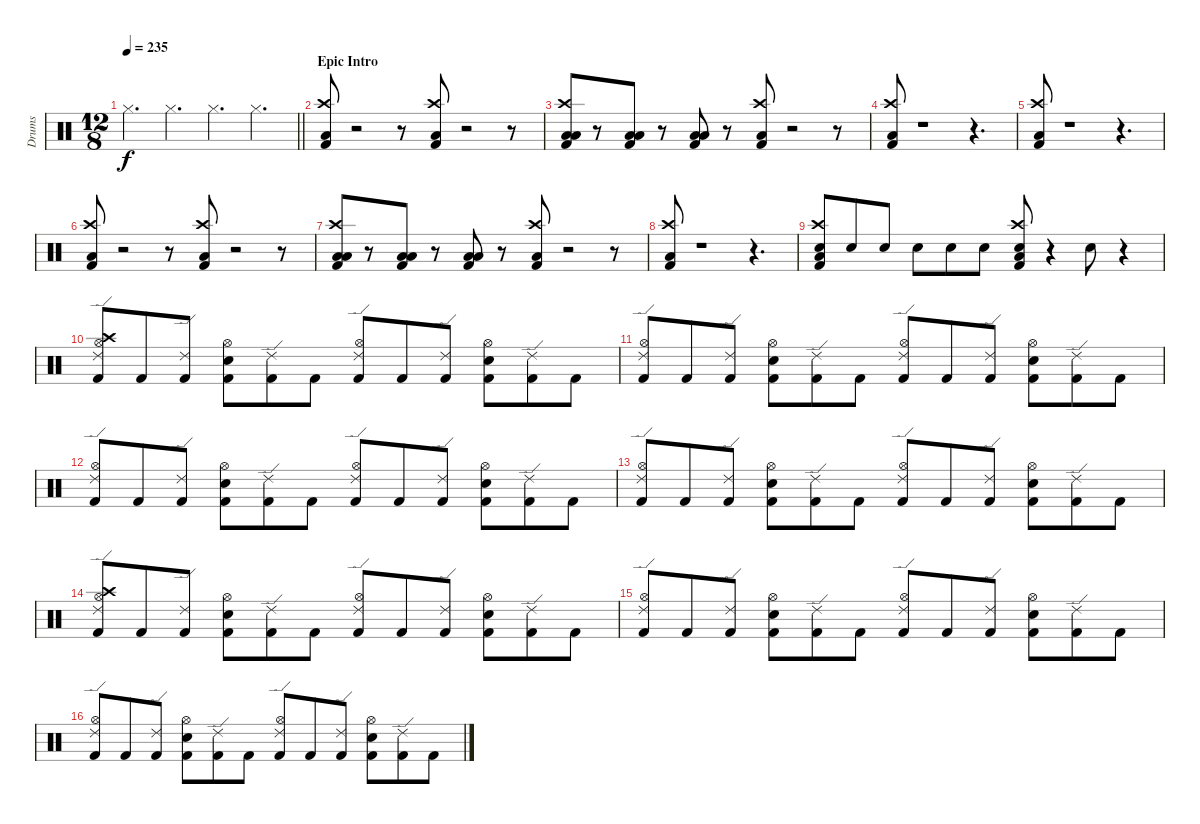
\track ("Drums" "Drums") {instrument percussion}
\staff {score}
\articulation defaults
\ts (12 8)
\tempo 235
\clef neutral
\barLineRight lightlight
\ks c "Hi-Hat (closed)".4{d dy f} "Hi-Hat (closed)".4{d} "Hi-Hat (closed)".4{d} "Hi-Hat (closed)".4{d}
|
\section ("" "Epic Intro")
("Kick (hit) 2" "Crash high (hit)" "Low Floor Tom (hit)").8 r.2 r.8 ("Crash high (hit)" "Kick (hit) 2" "Low Floor Tom (hit)").8 r.2 r.8 |
("Low Tom (hit)" "Low Floor Tom (hit)" "Kick (hit) 2" "Crash high (hit)").8 r.8 ("Kick (hit) 2" "Low Floor Tom (hit)" "Low Tom (hit)").8 r.8 ("Kick (hit) 2" "Low Tom (hit)" "Low Floor Tom (hit)").8 r.8 ("Crash high (hit)" "Kick (hit) 2" "Low Floor Tom (hit)").8 r.2 r.8 |
("Kick (hit) 2" "Crash high (hit)" "Low Floor Tom (hit)").8 r.1 r.4{d} |
("Crash high (hit)" "Kick (hit) 2" "Low Floor Tom (hit)").8 r.1 r.4{d} |
("Kick (hit) 2" "Crash high (hit)" "Low Floor Tom (hit)").8 r.2 r.8 ("Crash high (hit)" "Kick (hit) 2" "Low Floor Tom (hit)").8 r.2 r.8 |
("Low Tom (hit)" "Low Floor Tom (hit)" "Kick (hit) 2" "Crash high (hit)").8 r.8 ("Kick (hit) 2" "Low Floor Tom (hit)" "Low Tom (hit)").8 r.8 ("Kick (hit) 2" "Low Tom (hit)" "Low Floor Tom (hit)").8 r.8 ("Crash high (hit)" "Kick (hit) 2" "Low Floor Tom (hit)").8 r.2 r.8 |
("Kick (hit) 2" "Crash high (hit)" "Low Floor Tom (hit)").8 r.1 r.4{d} |
("Crash high (hit)" "Kick (hit) 2" "Low Floor Tom (hit)" "Snare (hit) 2").8 "Snare (hit) 2".8 "Snare (hit) 2".8 "Snare (hit) 2".8 "Snare (hit) 2".8 "Snare (hit) 2".8 ("Snare (hit) 2" "Crash high (hit)" "Kick (hit) 2" "Low Floor Tom (hit)").8 r.4 "Snare (hit) 2".8 r.4 |
("Hi-Hat (open)" "Kick (hit) 2" "Crash high (hit)" "Ride (edge) 2").8 "Kick (hit) 2".8 ("Kick (hit) 2" "Ride (edge) 2").8 ("Kick (hit) 2" "Hi-Hat (open)" "Snare (hit) 2").8 ("Ride (edge) 2" "Kick (hit) 2").8 "Kick (hit) 2".8 ("Kick (hit) 2" "Ride (edge) 2" "Hi-Hat (open)").8 "Kick (hit) 2".8 ("Kick (hit) 2" "Ride (edge) 2").8 ("Kick (hit) 2" "Hi-Hat (open)" "Snare (hit) 2").8 ("Ride (edge) 2" "Kick (hit) 2").8 "Kick (hit) 2".8 |
("Kick (hit) 2" "Ride (edge) 2" "Hi-Hat (open)").8 "Kick (hit) 2".8 ("Kick (hit) 2" "Ride (edge) 2").8 ("Kick (hit) 2" "Hi-Hat (open)" "Snare (hit) 2").8 ("Ride (edge) 2" "Kick (hit) 2").8 "Kick (hit) 2".8 ("Kick (hit) 2" "Ride (edge) 2" "Hi-Hat (open)").8 "Kick (hit) 2".8 ("Kick (hit) 2" "Ride (edge) 2").8 ("Kick (hit) 2" "Hi-Hat (open)" "Snare (hit) 2").8 ("Ride (edge) 2" "Kick (hit) 2").8 "Kick (hit) 2".8 |
("Kick (hit) 2" "Ride (edge) 2" "Hi-Hat (open)").8 "Kick (hit) 2".8 ("Kick (hit) 2" "Ride (edge) 2").8 ("Kick (hit) 2" "Hi-Hat (open)" "Snare (hit) 2").8 ("Ride (edge) 2" "Kick (hit) 2").8 "Kick (hit) 2".8 ("Kick (hit) 2" "Ride (edge) 2" "Hi-Hat (open)").8 "Kick (hit) 2".8 ("Kick (hit) 2" "Ride (edge) 2").8 ("Kick (hit) 2" "Hi-Hat (open)" "Snare (hit) 2").8 ("Ride (edge) 2" "Kick (hit) 2").8 "Kick (hit) 2".8 |
("Kick (hit) 2" "Ride (edge) 2" "Hi-Hat (open)").8 "Kick (hit) 2".8 ("Kick (hit) 2" "Ride (edge) 2").8 ("Kick (hit) 2" "Hi-Hat (open)" "Snare (hit) 2").8 ("Ride (edge) 2" "Kick (hit) 2").8 "Kick (hit) 2".8 ("Kick (hit) 2" "Ride (edge) 2" "Hi-Hat (open)").8 "Kick (hit) 2".8 ("Kick (hit) 2" "Ride (edge) 2").8 ("Kick (hit) 2" "Hi-Hat (open)" "Snare (hit) 2").8 ("Ride (edge) 2" "Kick (hit) 2").8 "Kick (hit) 2".8 |
("Kick (hit) 2" "Ride (edge) 2" "Crash high (hit)" "Hi-Hat (open)").8 "Kick (hit) 2".8 ("Ride (edge) 2" "Kick (hit) 2").8 ("Snare (hit) 2" "Kick (hit) 2" "Hi-Hat (open)").8 ("Kick (hit) 2" "Ride (edge) 2").8 "Kick (hit) 2".8 ("Hi-Hat (open)" "Ride (edge) 2" "Kick (hit) 2").8 "Kick (hit) 2".8 ("Ride (edge) 2" "Kick (hit) 2").8 ("Snare (hit) 2" "Kick (hit) 2" "Hi-Hat (open)").8 ("Kick (hit) 2" "Ride (edge) 2").8 "Kick (hit) 2".8 |
("Hi-Hat (open)" "Ride (edge) 2" "Kick (hit) 2").8 "Kick (hit) 2".8 ("Ride (edge) 2" "Kick (hit) 2").8 ("Snare (hit) 2" "Kick (hit) 2" "Hi-Hat (open)").8 ("Kick (hit) 2" "Ride (edge) 2").8 "Kick (hit) 2".8 ("Hi-Hat (open)" "Ride (edge) 2" "Kick (hit) 2").8 "Kick (hit) 2".8 ("Ride (edge) 2" "Kick (hit) 2").8 ("Snare (hit) 2" "Kick (hit) 2" "Hi-Hat (open)").8 ("Kick (hit) 2" "Ride (edge) 2").8 "Kick (hit) 2".8 |
("Hi-Hat (open)" "Ride (edge) 2" "Kick (hit) 2").8 "Kick (hit) 2".8 ("Ride (edge) 2" "Kick (hit) 2").8 ("Snare (hit) 2" "Kick (hit) 2" "Hi-Hat (open)").8 ("Kick (hit) 2" "Ride (edge) 2").8 "Kick (hit) 2".8 ("Hi-Hat (open)" "Ride (edge) 2" "Kick (hit) 2").8 "Kick (hit) 2".8 ("Ride (edge) 2" "Kick (hit) 2").8 ("Snare (hit) 2" "Kick (hit) 2" "Hi-Hat (open)").8 ("Kick (hit) 2" "Ride (edge) 2").8 "Kick (hit) 2".8
